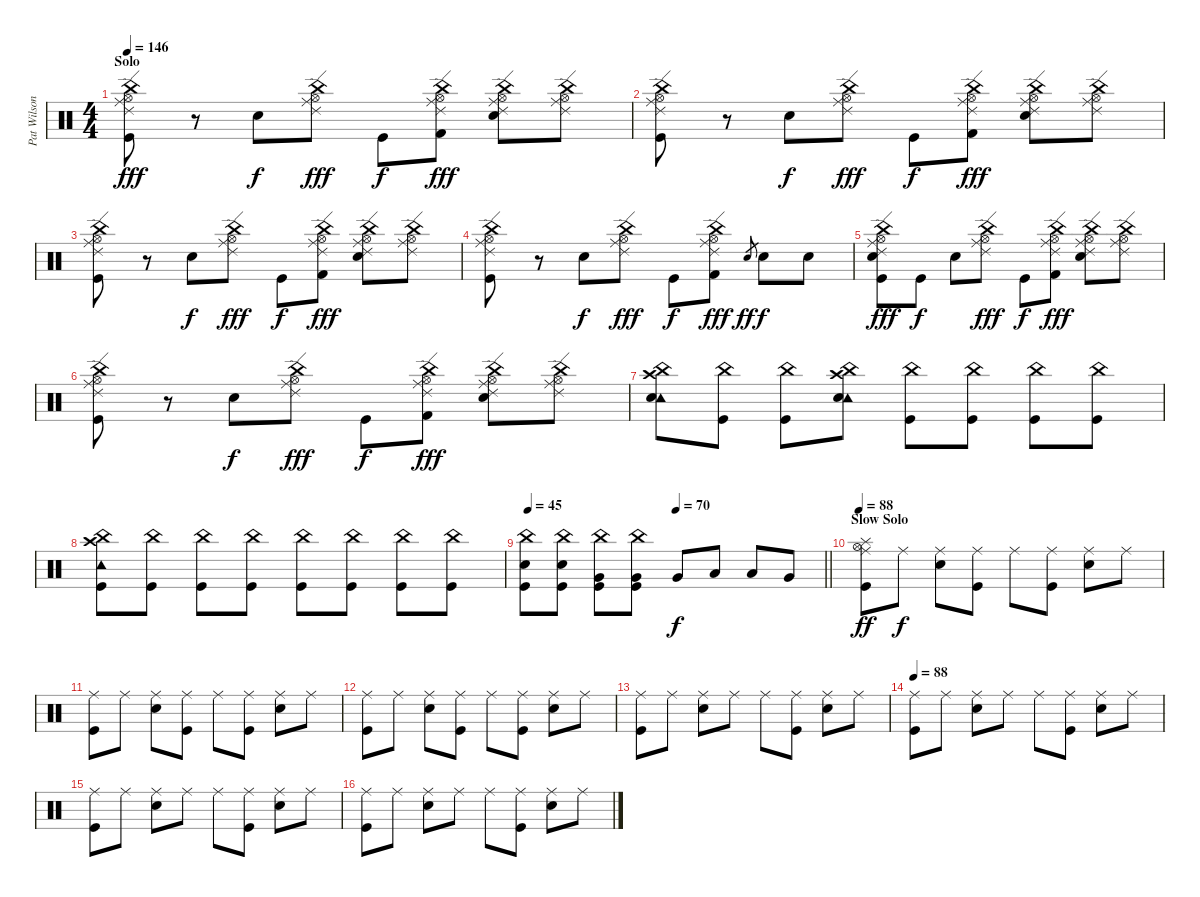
\track ("Pat Wilson" "Pat Wilson") {instrument percussion}
\staff {score}
\articulation defaults
\ts (4 4)
\section ("" "Solo")
\tempo 146
\clef neutral
\ks c
("Hi-Hat (open)" "China (hit)" "Kick (hit)" "Ride (middle)" "Ride (edge) 2").8{dy fff} r.8 "Snare (hit) 2".8{dy f} ("Hi-Hat (open)" "China (hit)" "Ride (middle)" "Ride (edge) 2").8{dy fff} "Kick (hit)".8{dy f} ("Hi-Hat (open)" "China (hit)" "Kick (hit) 2" "Ride (middle)" "Ride (edge) 2").8{dy fff} ("Hi-Hat (open)" "China (hit)" "Snare (hit) 2" "Ride (middle)" "Ride (edge) 2").8 ("Hi-Hat (open)" "China (hit)" "Ride (middle)" "Ride (edge) 2").8 |
("Hi-Hat (open)" "China (hit)" "Kick (hit)" "Ride (middle)" "Ride (edge) 2").8 r.8 "Snare (hit) 2".8{dy f} ("Hi-Hat (open)" "China (hit)" "Ride (middle)" "Ride (edge) 2").8{dy fff} "Kick (hit)".8{dy f} ("Hi-Hat (open)" "China (hit)" "Kick (hit) 2" "Ride (middle)" "Ride (edge) 2").8{dy fff} ("Hi-Hat (open)" "China (hit)" "Snare (hit) 2" "Ride (middle)" "Ride (edge) 2").8 ("Hi-Hat (open)" "China (hit)" "Ride (middle)" "Ride (edge) 2").8 |
("Hi-Hat (open)" "China (hit)" "Kick (hit)" "Ride (middle)" "Ride (edge) 2").8 r.8 "Snare (hit) 2".8{dy f} ("Hi-Hat (open)" "China (hit)" "Ride (middle)" "Ride (edge) 2").8{dy fff} "Kick (hit)".8{dy f} ("Hi-Hat (open)" "China (hit)" "Kick (hit) 2" "Ride (middle)" "Ride (edge) 2").8{dy fff} ("Hi-Hat (open)" "China (hit)" "Snare (hit) 2" "Ride (middle)" "Ride (edge) 2").8 ("Hi-Hat (open)" "China (hit)" "Ride (middle)" "Ride (edge) 2").8 |
("Hi-Hat (open)" "China (hit)" "Kick (hit)" "Ride (middle)" "Ride (edge) 2").8 r.8 "Snare (hit) 2".8{dy f} ("Hi-Hat (open)" "China (hit)" "Ride (middle)" "Ride (edge) 2").8{dy fff} "Kick (hit)".8{dy f} ("Hi-Hat (open)" "China (hit)" "Kick (hit) 2" "Ride (middle)" "Ride (edge) 2").8{dy fff} "Electric Snare (hit)".8{gr dy ff} "Snare (hit) 2".8{dy f} "Snare (hit) 2".8 |
("Snare (hit) 2" "Hi-Hat (open)" "China (hit)" "Kick (hit)" "Ride (middle)" "Ride (edge) 2").8{dy fff} "Kick (hit)".8{dy f} "Snare (hit) 2".8 ("Hi-Hat (open)" "China (hit)" "Ride (middle)" "Ride (edge) 2").8{dy fff} "Kick (hit)".8{dy f} ("Hi-Hat (open)" "China (hit)" "Kick (hit) 2" "Ride (middle)" "Ride (edge) 2").8{dy fff} ("Hi-Hat (open)" "China (hit)" "Snare (hit) 2" "Ride (middle)" "Ride (edge) 2").8 ("Hi-Hat (open)" "China (hit)" "Ride (middle)" "Ride (edge) 2").8 |
("Hi-Hat (open)" "China (hit)" "Kick (hit)" "Ride (middle)" "Ride (edge) 2").8 r.8 "Snare (hit) 2".8{dy f} ("Hi-Hat (open)" "China (hit)" "Ride (middle)" "Ride (edge) 2").8{dy fff} "Kick (hit)".8{dy f} ("Hi-Hat (open)" "China (hit)" "Kick (hit) 2" "Ride (middle)" "Ride (edge) 2").8{dy fff} ("Hi-Hat (open)" "China (hit)" "Snare (hit) 2" "Ride (middle)" "Ride (edge) 2").8 ("Hi-Hat (open)" "China (hit)" "Ride (middle)" "Ride (edge) 2").8 |
("Crash high (hit)" "Tambourine (hit)" "China (hit)" "Snare (hit) 2").8 ("China (hit)" "Kick (hit)").8 ("China (hit)" "Kick (hit)").8 ("Crash high (hit)" "Tambourine (hit)" "China (hit)" "Snare (hit) 2").8 ("China (hit)" "Kick (hit)").8 ("China (hit)" "Kick (hit)").8 ("China (hit)" "Kick (hit)").8 ("China (hit)" "Kick (hit)").8 |
("Crash high (hit)" "Tambourine (hit)" "China (hit)" "Kick (hit)").8 ("China (hit)" "Kick (hit)").8 ("China (hit)" "Kick (hit)").8 ("China (hit)" "Kick (hit)").8 ("China (hit)" "Kick (hit)").8 ("China (hit)" "Kick (hit)").8 ("China (hit)" "Kick (hit)").8 ("China (hit)" "Kick (hit)").8 |
\tempo 45
\tempo (70 0.5)
\barLineRight lightlight
("Snare (hit) 2" "China (hit)" "Kick (hit)").8 ("Snare (hit) 2" "China (hit)" "Kick (hit)").8 ("Very Low Tom (hit)" "China (hit)" "Kick (hit)").8 ("Very Low Tom (hit)" "China (hit)" "Kick (hit)").8 "Very Low Tom (hit)".8{dy f} "Low Floor Tom (hit)".8 "Low Floor Tom (hit)".8 "Very Low Tom (hit)".8 |
\section ("" "Slow Solo")
\tempo 88
("Splash (hit)" "Hi-Hat (open)" "Ride (middle)" "Kick (hit)").8{dy ff} "Ride (middle)".8{dy f} ("Ride (middle)" "Snare (hit) 2").8 ("Ride (middle)" "Kick (hit)").8 "Ride (middle)".8 ("Ride (middle)" "Kick (hit)").8 ("Ride (middle)" "Snare (hit) 2").8 "Ride (middle)".8 |
("Ride (middle)" "Kick (hit)").8 "Ride (middle)".8 ("Ride (middle)" "Snare (hit) 2").8 ("Ride (middle)" "Kick (hit)").8 "Ride (middle)".8 ("Ride (middle)" "Kick (hit)").8 ("Ride (middle)" "Snare (hit) 2").8 "Ride (middle)".8 |
("Ride (middle)" "Kick (hit)").8 "Ride (middle)".8 ("Ride (middle)" "Snare (hit) 2").8 ("Ride (middle)" "Kick (hit)").8 "Ride (middle)".8 ("Ride (middle)" "Kick (hit)").8 ("Ride (middle)" "Snare (hit) 2").8 "Ride (middle)".8 |
("Ride (middle)" "Kick (hit)").8 "Ride (middle)".8 ("Ride (middle)" "Snare (hit) 2").8 "Ride (middle)".8 "Ride (middle)".8 ("Ride (middle)" "Kick (hit)").8 ("Ride (middle)" "Snare (hit) 2").8 "Ride (middle)".8 |
\tempo 88
("Ride (middle)" "Kick (hit)").8 "Ride (middle)".8 ("Ride (middle)" "Snare (hit) 2").8 "Ride (middle)".8 "Ride (middle)".8 ("Ride (middle)" "Kick (hit)").8 ("Ride (middle)" "Snare (hit) 2").8 "Ride (middle)".8 |
("Ride (middle)" "Kick (hit)").8 "Ride (middle)".8 ("Ride (middle)" "Snare (hit) 2").8 "Ride (middle)".8 "Ride (middle)".8 ("Ride (middle)" "Kick (hit)").8 ("Ride (middle)" "Snare (hit) 2").8 "Ride (middle)".8 |
("Ride (middle)" "Kick (hit)").8 "Ride (middle)".8 ("Ride (middle)" "Snare (hit) 2").8 "Ride (middle)".8 "Ride (middle)".8 ("Ride (middle)" "Kick (hit)").8 ("Ride (middle)" "Snare (hit) 2").8 "Ride (middle)".8
